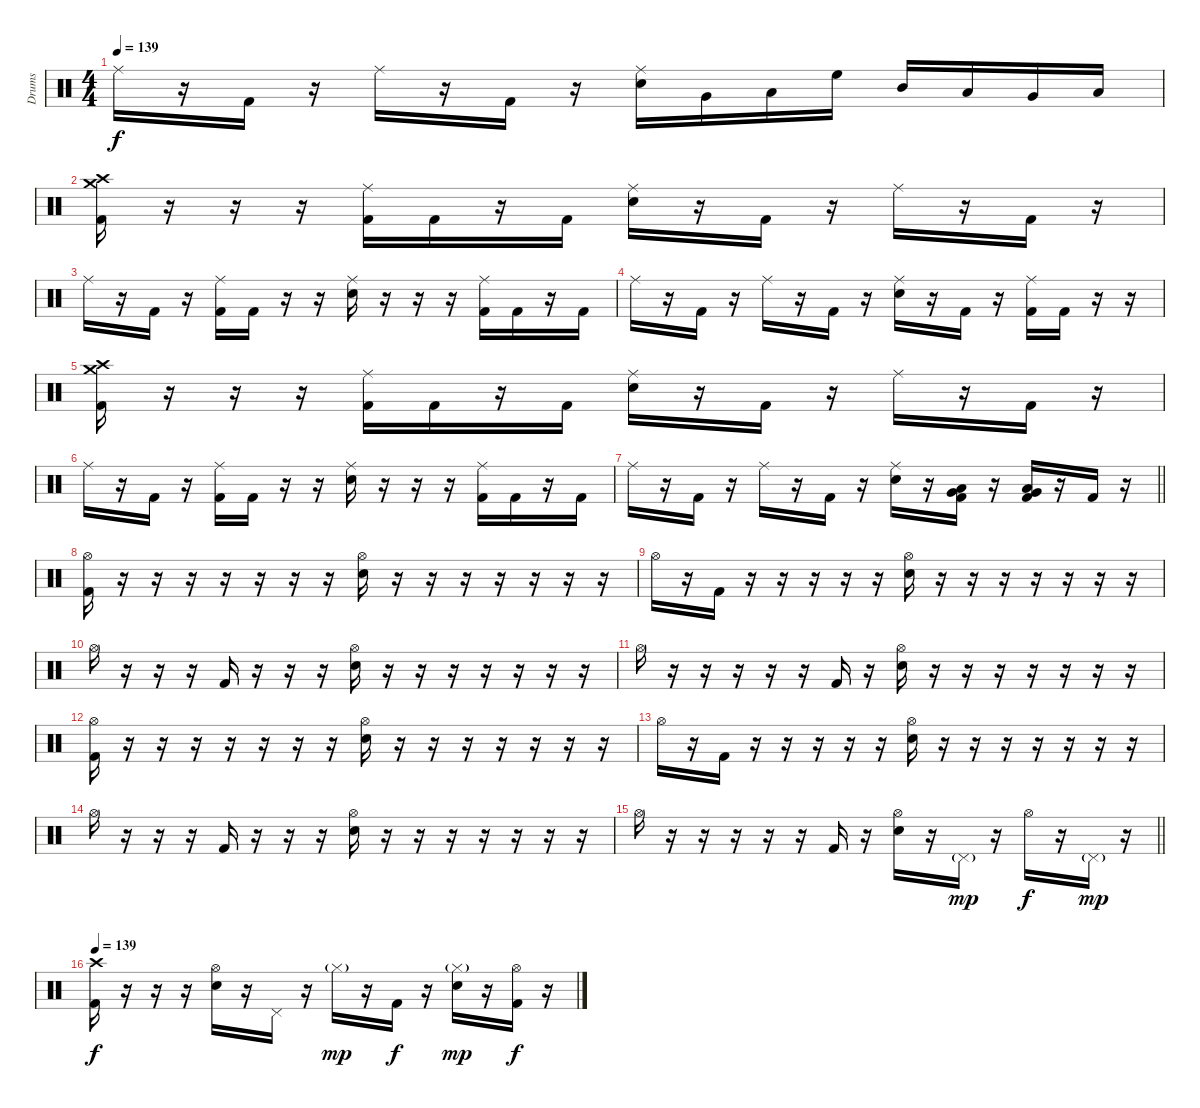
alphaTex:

\track ("Drums" "Drums") {instrument percussion}
\staff {score}
\articulation defaults
\ts (4 4)
\tempo 139
\clef neutral
\ks c "Ride (middle)".16{dy f}
r.16 "Kick (hit) 2".16 r.16 "Ride (middle)".16 r.16 "Kick (hit) 2".16 r.16 ("Ride (middle)" "Electric Snare (hit)").16 "Very Low Tom (hit)".16 "Low Tom (hit)".16 "High Floor Tom (hit)".16 "Mid Tom (hit)".16 "Low Tom (hit)".16 "Very Low Tom (hit)".16 "Low Floor Tom (hit)".16 |
("Crash medium (hit)" "Crash high (hit)" "Kick (hit) 2").16 r.16 r.16 r.16 ("Ride (middle)" "Kick (hit) 2").16 "Kick (hit) 2".16 r.16 "Kick (hit) 2".16 ("Ride (middle)" "Electric Snare (hit)").16 r.16 "Kick (hit) 2".16 r.16 "Ride (middle)".16 r.16 "Kick (hit) 2".16 r.16 |
"Ride (middle)".16 r.16 "Kick (hit) 2".16 r.16 ("Ride (middle)" "Kick (hit) 2").16 "Kick (hit) 2".16 r.16 r.16 ("Ride (middle)" "Electric Snare (hit)").16 r.16 r.16 r.16 ("Ride (middle)" "Kick (hit) 2").16 "Kick (hit) 2".16 r.16 "Kick (hit) 2".16 |
"Ride (middle)".16 r.16 "Kick (hit) 2".16 r.16 "Ride (middle)".16 r.16 "Kick (hit) 2".16 r.16 ("Ride (middle)" "Electric Snare (hit)").16 r.16 "Kick (hit) 2".16 r.16 ("Ride (middle)" "Kick (hit) 2").16 "Kick (hit) 2".16 r.16 r.16 |
("Crash medium (hit)" "Crash high (hit)" "Kick (hit) 2").16 r.16 r.16 r.16 ("Ride (middle)" "Kick (hit) 2").16 "Kick (hit) 2".16 r.16 "Kick (hit) 2".16 ("Ride (middle)" "Electric Snare (hit)").16 r.16 "Kick (hit) 2".16 r.16 "Ride (middle)".16 r.16 "Kick (hit) 2".16 r.16 |
"Ride (middle)".16 r.16 "Kick (hit) 2".16 r.16 ("Ride (middle)" "Kick (hit) 2").16 "Kick (hit) 2".16 r.16 r.16 ("Ride (middle)" "Electric Snare (hit)").16 r.16 r.16 r.16 ("Ride (middle)" "Kick (hit) 2").16 "Kick (hit) 2".16 r.16 "Kick (hit) 2".16 |
\barLineRight lightlight "Ride (middle)".16
r.16 "Kick (hit) 2".16 r.16 "Ride (middle)".16 r.16 "Kick (hit) 2".16 r.16 ("Ride (middle)" "Electric Snare (hit)").16 r.16 ("Low Tom (hit)" "Very Low Tom (hit)" "Kick (hit) 2").16 r.16 ("Low Tom (hit)" "Very Low Tom (hit)" "Kick (hit) 2").16 r.16 "Kick (hit) 2".16 r.16 |
\section ("" "")
("Hi-Hat (open)" "Kick (hit) 2").16 r.16 r.16 r.16 r.16 r.16 r.16 r.16 ("Hi-Hat (open)" "Electric Snare (hit)").16 r.16 r.16 r.16 r.16 r.16 r.16 r.16 |
"Hi-Hat (open)".16 r.16 "Kick (hit) 2".16 r.16 r.16 r.16 r.16 r.16 ("Hi-Hat (open)" "Electric Snare (hit)").16 r.16 r.16 r.16 r.16 r.16 r.16 r.16 |
"Hi-Hat (open)".16 r.16 r.16 r.16 "Kick (hit) 2".16 r.16 r.16 r.16 ("Hi-Hat (open)" "Electric Snare (hit)").16 r.16 r.16 r.16 r.16 r.16 r.16 r.16 |
"Hi-Hat (open)".16 r.16 r.16 r.16 r.16 r.16 "Kick (hit) 2".16 r.16 ("Hi-Hat (open)" "Electric Snare (hit)").16 r.16 r.16 r.16 r.16 r.16 r.16 r.16 |
("Hi-Hat (open)" "Kick (hit) 2").16 r.16 r.16 r.16 r.16 r.16 r.16 r.16 ("Hi-Hat (open)" "Electric Snare (hit)").16 r.16 r.16 r.16 r.16 r.16 r.16 r.16 |
"Hi-Hat (open)".16 r.16 "Kick (hit) 2".16 r.16 r.16 r.16 r.16 r.16 ("Hi-Hat (open)" "Electric Snare (hit)").16 r.16 r.16 r.16 r.16 r.16 r.16 r.16 |
"Hi-Hat (open)".16 r.16 r.16 r.16 "Kick (hit) 2".16 r.16 r.16 r.16 ("Hi-Hat (open)" "Electric Snare (hit)").16 r.16 r.16 r.16 r.16 r.16 r.16 r.16 |
\barLineRight lightlight "Hi-Hat (open)".16
r.16 r.16 r.16 r.16 r.16 "Kick (hit) 2".16 r.16 ("Hi-Hat (open)" "Electric Snare (hit)").16 r.16 "Pedal Hi-Hat (hit)"{g}.16{dy mp} r.16 "Hi-Hat (open)".16{dy f} r.16 "Pedal Hi-Hat (hit)"{g}.16{dy mp} r.16 |
\section ("" "")
\tempo 139
("Crash high (hit)" "Kick (hit) 2").16{dy f} r.16 r.16 r.16 ("Hi-Hat (open)" "Electric Snare (hit)").16 r.16 "Pedal Hi-Hat (hit)".16 r.16 "Hi-Hat (closed)"{g}.16{dy mp} r.16 "Kick (hit) 2".16{dy f} r.16 ("Hi-Hat (closed)"{g} "Electric Snare (hit)").16{dy mp} r.16 ("Hi-Hat (open)" "Kick (hit) 2").16{dy f} r.16
